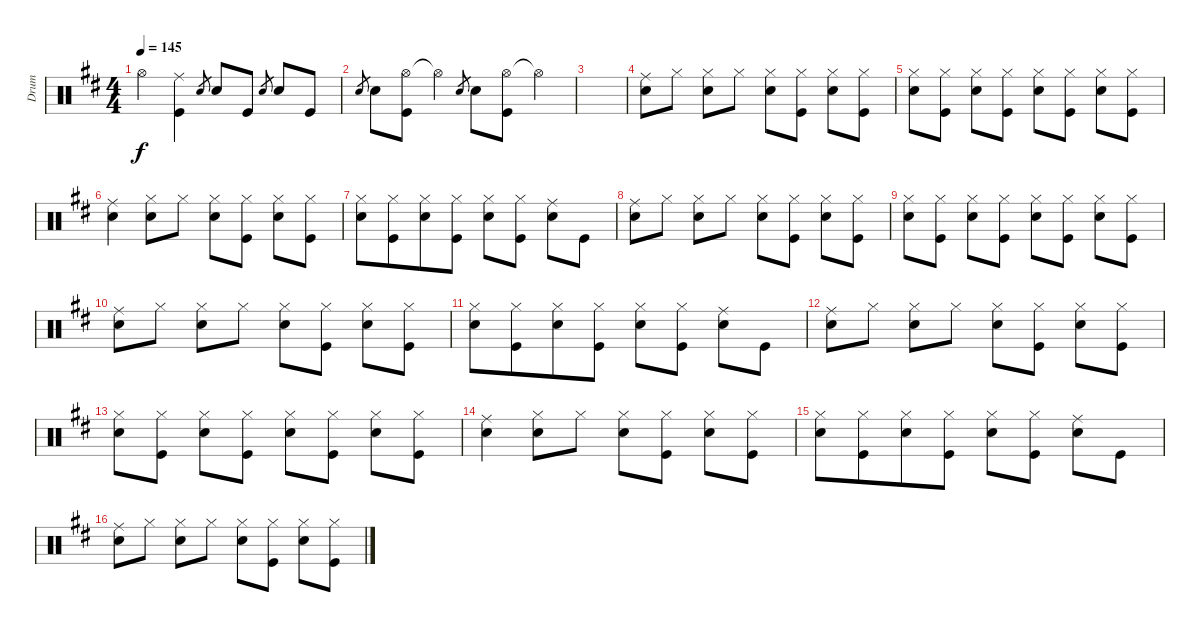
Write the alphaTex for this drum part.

\track ("     Drum" "     Drum") {instrument percussion}
\staff {score}
\articulation defaults
\ts (4 4)
\tempo 145
\clef neutral
\ks d "Hi-Hat (open)".4{dy f}
("Ride (middle)" "Kick (hit)").4 "Snare (hit) 2"{sl}.8{gr} "Snare (hit) 2".8 "Kick (hit)".8 "Snare (hit) 2"{sl}.8{gr} "Snare (hit) 2".8 "Kick (hit)".8 |
"Snare (hit) 2".8{gr} "Snare (hit) 2".8 ("Hi-Hat (open)" "Kick (hit)").8 "Hi-Hat (open)"{t}.4 "Snare (hit) 2"{sl}.8{gr} "Snare (hit) 2".8 ("Hi-Hat (open)" "Kick (hit)").8 "Hi-Hat (open)"{t}.4 |
|
("Ride (middle)" "Snare (hit) 2").8 "Hi-Hat (closed)".8 ("Hi-Hat (closed)" "Snare (hit) 2").8 "Hi-Hat (closed)".8 ("Hi-Hat (closed)" "Snare (hit) 2").8 ("Hi-Hat (closed)" "Kick (hit)").8 ("Hi-Hat (closed)" "Snare (hit) 2").8 ("Hi-Hat (closed)" "Kick (hit)").8 |
("Hi-Hat (closed)" "Snare (hit) 2").8 ("Hi-Hat (closed)" "Kick (hit)").8 ("Hi-Hat (closed)" "Snare (hit) 2").8 ("Hi-Hat (closed)" "Kick (hit)").8 ("Hi-Hat (closed)" "Snare (hit) 2").8 ("Hi-Hat (closed)" "Kick (hit)").8 ("Hi-Hat (closed)" "Snare (hit) 2").8 ("Hi-Hat (closed)" "Kick (hit)").8 |
("Ride (middle)" "Snare (hit) 2").4 ("Hi-Hat (closed)" "Snare (hit) 2").8 "Hi-Hat (closed)".8 ("Hi-Hat (closed)" "Snare (hit) 2").8 ("Hi-Hat (closed)" "Kick (hit)").8 ("Hi-Hat (closed)" "Snare (hit) 2").8 ("Hi-Hat (closed)" "Kick (hit)").8 |
("Hi-Hat (closed)" "Snare (hit) 2").8 ("Hi-Hat (closed)" "Kick (hit)").8{beam merge} ("Hi-Hat (closed)" "Snare (hit) 2").8 ("Hi-Hat (closed)" "Kick (hit)").8 ("Hi-Hat (closed)" "Snare (hit) 2").8{beam merge} ("Hi-Hat (closed)" "Kick (hit)").8 ("Ride (middle)" "Snare (hit) 2").8 "Kick (hit)".8 |
("Ride (middle)" "Snare (hit) 2").8 "Hi-Hat (closed)".8 ("Hi-Hat (closed)" "Snare (hit) 2").8 "Hi-Hat (closed)".8 ("Hi-Hat (closed)" "Snare (hit) 2").8 ("Hi-Hat (closed)" "Kick (hit)").8 ("Hi-Hat (closed)" "Snare (hit) 2").8 ("Hi-Hat (closed)" "Kick (hit)").8 |
("Hi-Hat (closed)" "Snare (hit) 2").8 ("Hi-Hat (closed)" "Kick (hit)").8 ("Hi-Hat (closed)" "Snare (hit) 2").8 ("Hi-Hat (closed)" "Kick (hit)").8 ("Hi-Hat (closed)" "Snare (hit) 2").8 ("Hi-Hat (closed)" "Kick (hit)").8 ("Hi-Hat (closed)" "Snare (hit) 2").8 ("Hi-Hat (closed)" "Kick (hit)").8 |
("Ride (middle)" "Snare (hit) 2").8 "Hi-Hat (closed)".8 ("Hi-Hat (closed)" "Snare (hit) 2").8 "Hi-Hat (closed)".8 ("Hi-Hat (closed)" "Snare (hit) 2").8 ("Hi-Hat (closed)" "Kick (hit)").8 ("Hi-Hat (closed)" "Snare (hit) 2").8 ("Hi-Hat (closed)" "Kick (hit)").8 |
("Hi-Hat (closed)" "Snare (hit) 2").8 ("Hi-Hat (closed)" "Kick (hit)").8{beam merge} ("Hi-Hat (closed)" "Snare (hit) 2").8 ("Hi-Hat (closed)" "Kick (hit)").8 ("Hi-Hat (closed)" "Snare (hit) 2").8{beam merge} ("Hi-Hat (closed)" "Kick (hit)").8 ("Ride (middle)" "Snare (hit) 2").8 "Kick (hit)".8 |
("Ride (middle)" "Snare (hit) 2").8 "Hi-Hat (closed)".8 ("Hi-Hat (closed)" "Snare (hit) 2").8 "Hi-Hat (closed)".8 ("Hi-Hat (closed)" "Snare (hit) 2").8 ("Hi-Hat (closed)" "Kick (hit)").8 ("Hi-Hat (closed)" "Snare (hit) 2").8 ("Hi-Hat (closed)" "Kick (hit)").8 |
("Hi-Hat (closed)" "Snare (hit) 2").8 ("Hi-Hat (closed)" "Kick (hit)").8 ("Hi-Hat (closed)" "Snare (hit) 2").8 ("Hi-Hat (closed)" "Kick (hit)").8 ("Hi-Hat (closed)" "Snare (hit) 2").8 ("Hi-Hat (closed)" "Kick (hit)").8 ("Hi-Hat (closed)" "Snare (hit) 2").8 ("Hi-Hat (closed)" "Kick (hit)").8 |
("Ride (middle)" "Snare (hit) 2").4 ("Hi-Hat (closed)" "Snare (hit) 2").8 "Hi-Hat (closed)".8 ("Hi-Hat (closed)" "Snare (hit) 2").8 ("Hi-Hat (closed)" "Kick (hit)").8 ("Hi-Hat (closed)" "Snare (hit) 2").8 ("Hi-Hat (closed)" "Kick (hit)").8 |
("Hi-Hat (closed)" "Snare (hit) 2").8 ("Hi-Hat (closed)" "Kick (hit)").8{beam merge} ("Hi-Hat (closed)" "Snare (hit) 2").8 ("Hi-Hat (closed)" "Kick (hit)").8 ("Hi-Hat (closed)" "Snare (hit) 2").8{beam merge} ("Hi-Hat (closed)" "Kick (hit)").8 ("Ride (middle)" "Snare (hit) 2").8 "Kick (hit)".8 |
("Ride (middle)" "Snare (hit) 2").8 "Hi-Hat (closed)".8 ("Hi-Hat (closed)" "Snare (hit) 2").8 "Hi-Hat (closed)".8 ("Hi-Hat (closed)" "Snare (hit) 2").8 ("Hi-Hat (closed)" "Kick (hit)").8 ("Hi-Hat (closed)" "Snare (hit) 2").8 ("Hi-Hat (closed)" "Kick (hit)").8
